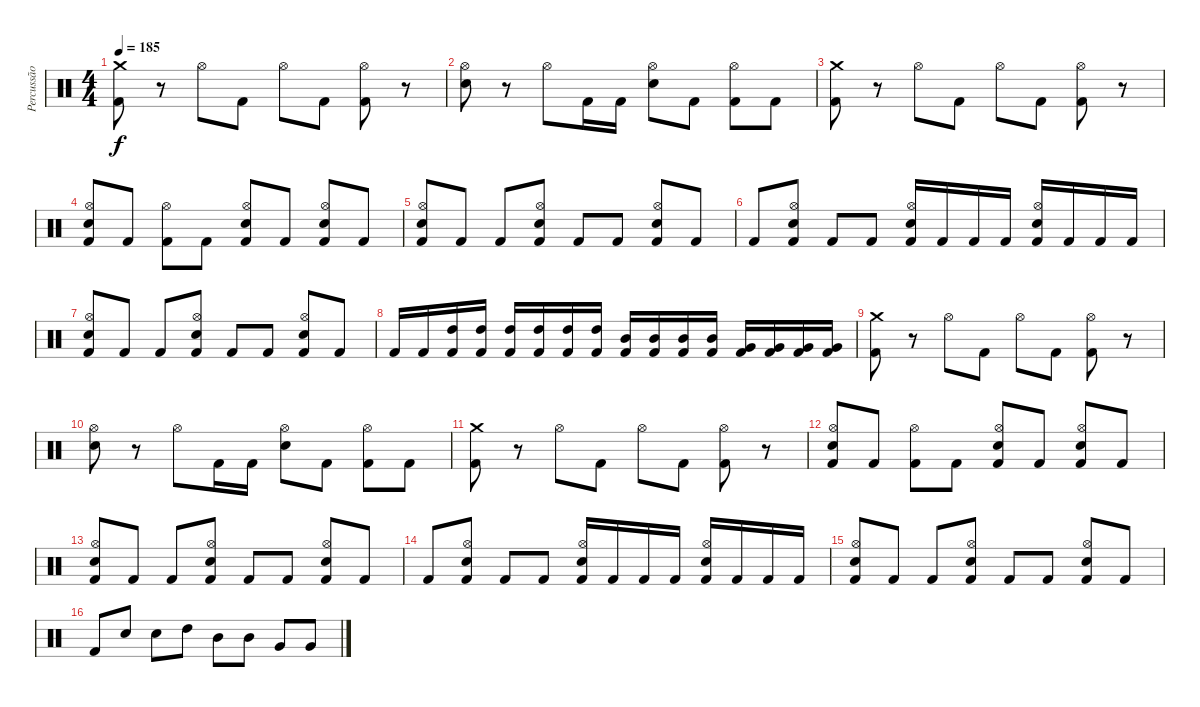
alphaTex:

\track ("Percussão" "Percussão") {instrument percussion}
\staff {score}
\articulation defaults
\ts (4 4)
\tempo 185
\clef neutral
\ks c
("Crash medium (hit)" "Kick (hit) 2").8{dy f} r.8 "Hi-Hat (open)".8 "Kick (hit) 2".8 "Hi-Hat (open)".8 "Kick (hit) 2".8 ("Hi-Hat (open)" "Kick (hit) 2").8 r.8 |
("Hi-Hat (open)" "Snare (hit) 2").8 r.8 "Hi-Hat (open)".8 "Kick (hit) 2".16 "Kick (hit) 2".16 ("Hi-Hat (open)" "Snare (hit) 2").8 "Kick (hit) 2".8 ("Hi-Hat (open)" "Kick (hit) 2").8 "Kick (hit) 2".8 |
("Crash medium (hit)" "Kick (hit) 2").8 r.8 "Hi-Hat (open)".8 "Kick (hit) 2".8 "Hi-Hat (open)".8 "Kick (hit) 2".8 ("Hi-Hat (open)" "Kick (hit) 2").8 r.8 |
("Hi-Hat (open)" "Snare (hit) 2" "Kick (hit) 2").8 "Kick (hit) 2".8 ("Hi-Hat (open)" "Kick (hit) 2").8 "Kick (hit) 2".8 ("Hi-Hat (open)" "Snare (hit) 2" "Kick (hit) 2").8 "Kick (hit) 2".8 ("Hi-Hat (open)" "Snare (hit) 2" "Kick (hit) 2").8 "Kick (hit) 2".8 |
("Hi-Hat (open)" "Snare (hit) 2" "Kick (hit) 2").8 "Kick (hit) 2".8 "Kick (hit) 2".8 ("Hi-Hat (open)" "Snare (hit) 2" "Kick (hit) 2").8 "Kick (hit) 2".8 "Kick (hit) 2".8 ("Hi-Hat (open)" "Snare (hit) 2" "Kick (hit) 2").8 "Kick (hit) 2".8 |
"Kick (hit) 2".8 ("Hi-Hat (open)" "Snare (hit) 2" "Kick (hit) 2").8 "Kick (hit) 2".8 "Kick (hit) 2".8 ("Hi-Hat (open)" "Snare (hit) 2" "Kick (hit) 2").16 "Kick (hit) 2".16 "Kick (hit) 2".16 "Kick (hit) 2".16 ("Hi-Hat (open)" "Snare (hit) 2" "Kick (hit) 2").16 "Kick (hit) 2".16 "Kick (hit) 2".16 "Kick (hit) 2".16 |
("Hi-Hat (open)" "Snare (hit) 2" "Kick (hit) 2").8 "Kick (hit) 2".8 "Kick (hit) 2".8 ("Hi-Hat (open)" "Snare (hit) 2" "Kick (hit) 2").8 "Kick (hit) 2".8 "Kick (hit) 2".8 ("Hi-Hat (open)" "Snare (hit) 2" "Kick (hit) 2").8 "Kick (hit) 2".8 |
"Kick (hit) 2".16 "Kick (hit) 2".16 ("High Tom (hit)" "Kick (hit) 2").16 ("High Tom (hit)" "Kick (hit) 2").16 ("High Tom (hit)" "Kick (hit) 2").16 ("High Tom (hit)" "Kick (hit) 2").16 ("High Tom (hit)" "Kick (hit) 2").16 ("High Tom (hit)" "Kick (hit) 2").16 ("Mid Tom (hit)" "Kick (hit) 2").16 ("Mid Tom (hit)" "Kick (hit) 2").16 ("Mid Tom (hit)" "Kick (hit) 2").16 ("Mid Tom (hit)" "Kick (hit) 2").16 ("Very Low Tom (hit)" "Kick (hit) 2").16 ("Very Low Tom (hit)" "Kick (hit) 2").16 ("Very Low Tom (hit)" "Kick (hit) 2").16 ("Very Low Tom (hit)" "Kick (hit) 2").16 |
("Crash medium (hit)" "Kick (hit) 2").8 r.8 "Hi-Hat (open)".8 "Kick (hit) 2".8 "Hi-Hat (open)".8 "Kick (hit) 2".8 ("Hi-Hat (open)" "Kick (hit) 2").8 r.8 |
("Hi-Hat (open)" "Snare (hit) 2").8 r.8 "Hi-Hat (open)".8 "Kick (hit) 2".16 "Kick (hit) 2".16 ("Hi-Hat (open)" "Snare (hit) 2").8 "Kick (hit) 2".8 ("Hi-Hat (open)" "Kick (hit) 2").8 "Kick (hit) 2".8 |
("Crash medium (hit)" "Kick (hit) 2").8 r.8 "Hi-Hat (open)".8 "Kick (hit) 2".8 "Hi-Hat (open)".8 "Kick (hit) 2".8 ("Hi-Hat (open)" "Kick (hit) 2").8 r.8 |
("Hi-Hat (open)" "Snare (hit) 2" "Kick (hit) 2").8 "Kick (hit) 2".8 ("Hi-Hat (open)" "Kick (hit) 2").8 "Kick (hit) 2".8 ("Hi-Hat (open)" "Snare (hit) 2" "Kick (hit) 2").8 "Kick (hit) 2".8 ("Hi-Hat (open)" "Snare (hit) 2" "Kick (hit) 2").8 "Kick (hit) 2".8 |
("Hi-Hat (open)" "Snare (hit) 2" "Kick (hit) 2").8 "Kick (hit) 2".8 "Kick (hit) 2".8 ("Hi-Hat (open)" "Snare (hit) 2" "Kick (hit) 2").8 "Kick (hit) 2".8 "Kick (hit) 2".8 ("Hi-Hat (open)" "Snare (hit) 2" "Kick (hit) 2").8 "Kick (hit) 2".8 |
"Kick (hit) 2".8 ("Hi-Hat (open)" "Snare (hit) 2" "Kick (hit) 2").8 "Kick (hit) 2".8 "Kick (hit) 2".8 ("Hi-Hat (open)" "Snare (hit) 2" "Kick (hit) 2").16 "Kick (hit) 2".16 "Kick (hit) 2".16 "Kick (hit) 2".16 ("Hi-Hat (open)" "Snare (hit) 2" "Kick (hit) 2").16 "Kick (hit) 2".16 "Kick (hit) 2".16 "Kick (hit) 2".16 |
("Hi-Hat (open)" "Snare (hit) 2" "Kick (hit) 2").8 "Kick (hit) 2".8 "Kick (hit) 2".8 ("Hi-Hat (open)" "Snare (hit) 2" "Kick (hit) 2").8 "Kick (hit) 2".8 "Kick (hit) 2".8 ("Hi-Hat (open)" "Snare (hit) 2" "Kick (hit) 2").8 "Kick (hit) 2".8 |
"Kick (hit) 2".8 "Snare (hit) 2".8 "Snare (hit) 2".8 "High Tom (hit)".8 "Mid Tom (hit)".8 "Mid Tom (hit)".8 "Very Low Tom (hit)".8 "Very Low Tom (hit)".8
